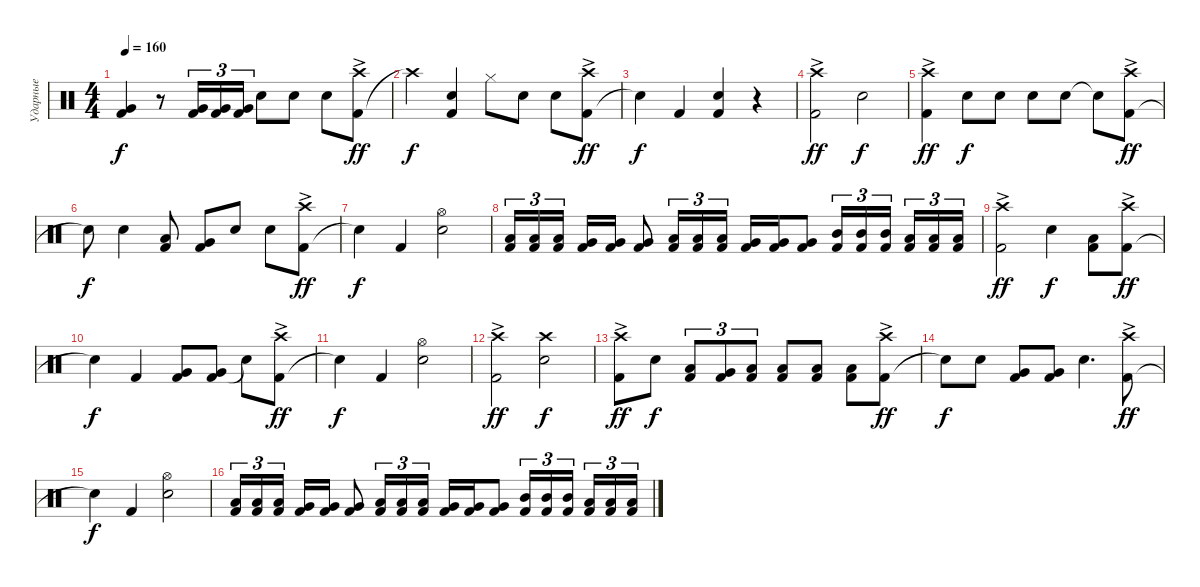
\track ("Ударные" "Ударные") {instrument percussion}
\staff
\articulation defaults
\ts (4 4)
\tempo 160
\clef neutral
\ks c
("Kick (hit) 2" "Very Low Tom (hit)").4{dy f} r.8 ("Kick (hit) 2" "Very Low Tom (hit)").16{tu (3 2)} ("Kick (hit) 2" "Very Low Tom (hit)").16{tu (3 2)} ("Kick (hit) 2" "Very Low Tom (hit)").16{tu (3 2)} "Snare (hit) 2".8 "Snare (hit) 2".8 "Snare (hit) 2".8 ("Kick (hit) 2" "Crash high (hit)"{ac}).8{dy ff} |
"Crash high (hit)"{t}.4{dy f} ("Kick (hit) 2" "Snare (hit) 2").4 "Hi-Hat (closed)".8 "Snare (hit) 2".8 "Snare (hit) 2".8 ("Kick (hit) 2" "Crash high (hit)"{ac}).8{dy ff} |
"Snare (hit)"{t}.4{dy f} "Kick (hit) 2".4 ("Kick (hit) 2" "Snare (hit) 2").4 r.4 |
("Kick (hit) 2" "Crash high (hit)"{ac}).2{dy ff} "Snare (hit) 2".2{dy f} |
("Kick (hit) 2" "Crash high (hit)"{ac}).4{dy ff} "Snare (hit) 2".8{dy f} "Snare (hit) 2".8 "Snare (hit) 2".8 "Snare (hit) 2".8 "Snare (hit)"{t}.8 ("Kick (hit) 2" "Crash high (hit)"{ac}).8{dy ff} |
"Snare (hit)"{t}.8{dy f} "Snare (hit) 2".4 ("Kick (hit) 2" "Low Tom (hit)").8 ("Kick (hit) 2" "Very Low Tom (hit)").8 "Snare (hit) 2".8 "Snare (hit) 2".8 ("Kick (hit) 2" "Crash high (hit)"{ac}).8{dy ff} |
"Snare (hit)"{t}.4{dy f} "Kick (hit) 2".4 ("Snare (hit) 2" "Hi-Hat (open)").2 |
("Kick (hit) 2" "Low Tom (hit)").16{tu (3 2)} ("Kick (hit) 2" "Low Tom (hit)").16{tu (3 2)} ("Kick (hit) 2" "Low Tom (hit)").16{tu (3 2) beam splitsecondary} ("Kick (hit) 2" "Very Low Tom (hit)").16 ("Kick (hit) 2" "Very Low Tom (hit)").16 ("Kick (hit) 2" "Very Low Tom (hit)").8 ("Kick (hit) 2" "Low Tom (hit)").16{tu (3 2)} ("Kick (hit) 2" "Low Tom (hit)").16{tu (3 2)} ("Kick (hit) 2" "Low Tom (hit)").16{tu (3 2)} ("Kick (hit) 2" "Very Low Tom (hit)").16 ("Kick (hit) 2" "Very Low Tom (hit)").16 ("Kick (hit) 2" "Very Low Tom (hit)").8 ("Kick (hit) 2" "Mid Tom (hit)").16{tu (3 2)} ("Kick (hit) 2" "Mid Tom (hit)").16{tu (3 2)} ("Kick (hit) 2" "Mid Tom (hit)").16{tu (3 2) beam splitsecondary} ("Kick (hit) 2" "Low Tom (hit)").16{tu (3 2)} ("Kick (hit) 2" "Low Tom (hit)").16{tu (3 2)} ("Kick (hit) 2" "Low Tom (hit)").16{tu (3 2)} |
("Kick (hit) 2" "Crash high (hit)"{ac}).2{dy ff} "Snare (hit) 2".4{dy f} ("Kick (hit) 2" "Low Tom (hit)").8 ("Kick (hit) 2" "Crash high (hit)"{ac}).8{dy ff} |
"Snare (hit)"{t}.4{dy f} "Kick (hit) 2".4 ("Kick (hit) 2" "Very Low Tom (hit)").8 ("Kick (hit) 2" "Very Low Tom (hit)").8 "Snare (hit)"{t}.8 ("Kick (hit) 2" "Crash high (hit)"{ac}).8{dy ff} |
"Snare (hit)"{t}.4{dy f} "Kick (hit) 2".4 ("Snare (hit) 2" "Hi-Hat (open)").2 |
("Kick (hit) 2" "Crash high (hit)"{ac}).2{dy ff} ("Snare (hit) 2" "Crash high (hit)").2{dy f} |
("Kick (hit) 2" "Crash high (hit)"{ac}).8{dy ff} "Snare (hit) 2".8{dy f} ("Kick (hit) 2" "Low Tom (hit)").8{tu (3 2)} ("Kick (hit) 2" "Very Low Tom (hit)").8{tu (3 2)} ("Kick (hit) 2" "Low Tom (hit)").8{tu (3 2)} ("Kick (hit) 2" "Low Tom (hit)").8 ("Kick (hit) 2" "Low Tom (hit)").8 ("Kick (hit) 2" "Low Tom (hit)").8 ("Kick (hit) 2" "Crash high (hit)"{ac}).8{dy ff} |
"Snare (hit)"{t}.8{dy f} "Snare (hit) 2".8 ("Kick (hit) 2" "Very Low Tom (hit)").8 ("Kick (hit) 2" "Very Low Tom (hit)").8 "Snare (hit) 2".4{d} ("Kick (hit) 2" "Crash high (hit)"{ac}).8{dy ff} |
"Snare (hit)"{t}.4{dy f} "Kick (hit) 2".4 ("Snare (hit) 2" "Hi-Hat (open)").2 |
("Kick (hit) 2" "Low Tom (hit)").16{tu (3 2)} ("Kick (hit) 2" "Low Tom (hit)").16{tu (3 2)} ("Kick (hit) 2" "Low Tom (hit)").16{tu (3 2) beam splitsecondary} ("Kick (hit) 2" "Very Low Tom (hit)").16 ("Kick (hit) 2" "Very Low Tom (hit)").16 ("Kick (hit) 2" "Very Low Tom (hit)").8 ("Kick (hit) 2" "Low Tom (hit)").16{tu (3 2)} ("Kick (hit) 2" "Low Tom (hit)").16{tu (3 2)} ("Kick (hit) 2" "Low Tom (hit)").16{tu (3 2)} ("Kick (hit) 2" "Very Low Tom (hit)").16 ("Kick (hit) 2" "Very Low Tom (hit)").16 ("Kick (hit) 2" "Very Low Tom (hit)").8 ("Kick (hit) 2" "Mid Tom (hit)").16{tu (3 2)} ("Kick (hit) 2" "Mid Tom (hit)").16{tu (3 2)} ("Kick (hit) 2" "Mid Tom (hit)").16{tu (3 2) beam splitsecondary} ("Kick (hit) 2" "Low Tom (hit)").16{tu (3 2)} ("Kick (hit) 2" "Low Tom (hit)").16{tu (3 2)} ("Kick (hit) 2" "Low Tom (hit)").16{tu (3 2)}
